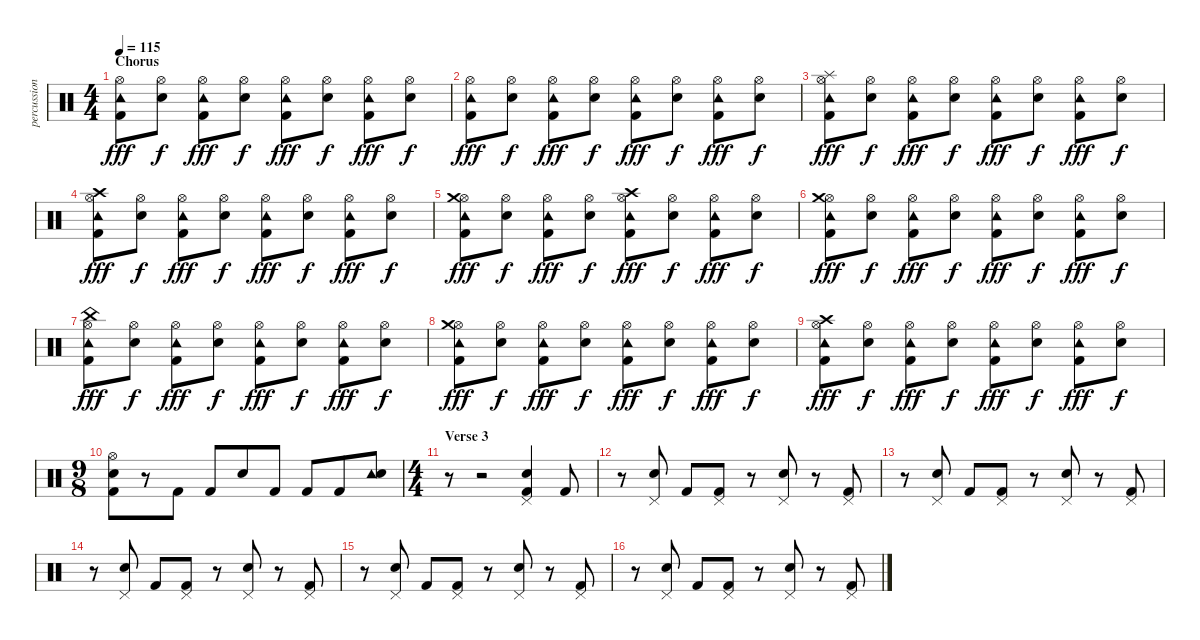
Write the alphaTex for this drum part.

\track ("percussion - vom" "percussion") {instrument percussion}
\staff {score}
\articulation defaults
\ts (4 4)
\section ("" "Chorus")
\tempo 115
\clef neutral
\ks c
("Hi-Hat (open)" "Tambourine (hit)" "Kick (hit) 2").8{dy fff} ("Hi-Hat (open)" "Snare (hit) 2").8{dy f} ("Hi-Hat (open)" "Tambourine (hit)" "Kick (hit) 2").8{dy fff} ("Hi-Hat (open)" "Snare (hit) 2").8{dy f} ("Hi-Hat (open)" "Tambourine (hit)" "Kick (hit) 2").8{dy fff} ("Hi-Hat (open)" "Snare (hit) 2").8{dy f} ("Hi-Hat (open)" "Tambourine (hit)" "Kick (hit) 2").8{dy fff} ("Hi-Hat (open)" "Snare (hit) 2").8{dy f} |
("Hi-Hat (open)" "Tambourine (hit)" "Kick (hit) 2").8{dy fff} ("Hi-Hat (open)" "Snare (hit) 2").8{dy f} ("Hi-Hat (open)" "Tambourine (hit)" "Kick (hit) 2").8{dy fff} ("Hi-Hat (open)" "Snare (hit) 2").8{dy f} ("Hi-Hat (open)" "Tambourine (hit)" "Kick (hit) 2").8{dy fff} ("Hi-Hat (open)" "Snare (hit) 2").8{dy f} ("Hi-Hat (open)" "Tambourine (hit)" "Kick (hit) 2").8{dy fff} ("Hi-Hat (open)" "Snare (hit) 2").8{dy f} |
("Hi-Hat (open)" "Splash (hit)" "Tambourine (hit)" "Kick (hit) 2").8{dy fff} ("Hi-Hat (open)" "Snare (hit) 2").8{dy f} ("Hi-Hat (open)" "Tambourine (hit)" "Kick (hit) 2").8{dy fff} ("Hi-Hat (open)" "Snare (hit) 2").8{dy f} ("Hi-Hat (open)" "Tambourine (hit)" "Kick (hit) 2").8{dy fff} ("Hi-Hat (open)" "Snare (hit) 2").8{dy f} ("Hi-Hat (open)" "Tambourine (hit)" "Kick (hit) 2").8{dy fff} ("Hi-Hat (open)" "Snare (hit) 2").8{dy f} |
("Hi-Hat (open)" "Crash high (hit)" "Tambourine (hit)" "Kick (hit) 2").8{dy fff} ("Hi-Hat (open)" "Snare (hit) 2").8{dy f} ("Hi-Hat (open)" "Tambourine (hit)" "Kick (hit) 2").8{dy fff} ("Hi-Hat (open)" "Snare (hit) 2").8{dy f} ("Hi-Hat (open)" "Tambourine (hit)" "Kick (hit) 2").8{dy fff} ("Hi-Hat (open)" "Snare (hit) 2").8{dy f} ("Hi-Hat (open)" "Tambourine (hit)" "Kick (hit) 2").8{dy fff} ("Hi-Hat (open)" "Snare (hit) 2").8{dy f} |
("Hi-Hat (open)" "Crash medium (hit)" "Tambourine (hit)" "Kick (hit) 2").8{dy fff} ("Hi-Hat (open)" "Snare (hit) 2").8{dy f} ("Hi-Hat (open)" "Tambourine (hit)" "Kick (hit) 2").8{dy fff} ("Hi-Hat (open)" "Snare (hit) 2").8{dy f} ("Hi-Hat (open)" "Crash high (hit)" "Tambourine (hit)" "Kick (hit) 2").8{dy fff} ("Hi-Hat (open)" "Snare (hit) 2").8{dy f} ("Hi-Hat (open)" "Tambourine (hit)" "Kick (hit) 2").8{dy fff} ("Hi-Hat (open)" "Snare (hit) 2").8{dy f} |
("Hi-Hat (open)" "Crash medium (hit)" "Tambourine (hit)" "Kick (hit) 2").8{dy fff} ("Hi-Hat (open)" "Snare (hit) 2").8{dy f} ("Hi-Hat (open)" "Tambourine (hit)" "Kick (hit) 2").8{dy fff} ("Hi-Hat (open)" "Snare (hit) 2").8{dy f} ("Hi-Hat (open)" "Tambourine (hit)" "Kick (hit) 2").8{dy fff} ("Hi-Hat (open)" "Snare (hit) 2").8{dy f} ("Hi-Hat (open)" "Tambourine (hit)" "Kick (hit) 2").8{dy fff} ("Hi-Hat (open)" "Snare (hit) 2").8{dy f} |
("Hi-Hat (open)" "China (hit)" "Tambourine (hit)" "Kick (hit) 2").8{dy fff} ("Hi-Hat (open)" "Snare (hit) 2").8{dy f} ("Hi-Hat (open)" "Tambourine (hit)" "Kick (hit) 2").8{dy fff} ("Hi-Hat (open)" "Snare (hit) 2").8{dy f} ("Hi-Hat (open)" "Tambourine (hit)" "Kick (hit) 2").8{dy fff} ("Hi-Hat (open)" "Snare (hit) 2").8{dy f} ("Hi-Hat (open)" "Tambourine (hit)" "Kick (hit) 2").8{dy fff} ("Hi-Hat (open)" "Snare (hit) 2").8{dy f} |
("Hi-Hat (open)" "Crash medium (hit)" "Tambourine (hit)" "Kick (hit) 2").8{dy fff} ("Hi-Hat (open)" "Snare (hit) 2").8{dy f} ("Hi-Hat (open)" "Tambourine (hit)" "Kick (hit) 2").8{dy fff} ("Hi-Hat (open)" "Snare (hit) 2").8{dy f} ("Hi-Hat (open)" "Tambourine (hit)" "Kick (hit) 2").8{dy fff} ("Hi-Hat (open)" "Snare (hit) 2").8{dy f} ("Hi-Hat (open)" "Tambourine (hit)" "Kick (hit) 2").8{dy fff} ("Hi-Hat (open)" "Snare (hit) 2").8{dy f} |
("Hi-Hat (open)" "Crash high (hit)" "Tambourine (hit)" "Kick (hit) 2").8{dy fff} ("Hi-Hat (open)" "Snare (hit) 2").8{dy f} ("Hi-Hat (open)" "Tambourine (hit)" "Kick (hit) 2").8{dy fff} ("Hi-Hat (open)" "Snare (hit) 2").8{dy f} ("Hi-Hat (open)" "Tambourine (hit)" "Kick (hit) 2").8{dy fff} ("Hi-Hat (open)" "Snare (hit) 2").8{dy f} ("Hi-Hat (open)" "Tambourine (hit)" "Kick (hit) 2").8{dy fff} ("Hi-Hat (open)" "Snare (hit) 2").8{dy f} |
\ts (9 8)
("Hi-Hat (open)" "Snare (hit) 2" "Kick (hit) 2").8 r.8 "Kick (hit) 2".8 "Kick (hit) 2".8 "Snare (hit) 2".8 "Kick (hit) 2".8 "Kick (hit) 2".8 "Kick (hit) 2".8 ("Tambourine (hit)" "Snare (hit) 2").8 |
\ts (4 4)
\section ("" "Verse 3")
r.8 r.2 ("Pedal Hi-Hat (hit)" "Snare (hit) 2" "Kick (hit) 2").4 "Kick (hit) 2".8 |
r.8 ("Pedal Hi-Hat (hit)" "Snare (hit) 2").8 "Kick (hit) 2".8 ("Pedal Hi-Hat (hit)" "Kick (hit) 2").8 r.8 ("Pedal Hi-Hat (hit)" "Snare (hit) 2").8 r.8 ("Pedal Hi-Hat (hit)" "Kick (hit) 2").8 |
r.8 ("Pedal Hi-Hat (hit)" "Snare (hit) 2").8 "Kick (hit) 2".8 ("Pedal Hi-Hat (hit)" "Kick (hit) 2").8 r.8 ("Pedal Hi-Hat (hit)" "Snare (hit) 2").8 r.8 ("Pedal Hi-Hat (hit)" "Kick (hit) 2").8 |
r.8 ("Pedal Hi-Hat (hit)" "Snare (hit) 2").8 "Kick (hit) 2".8 ("Pedal Hi-Hat (hit)" "Kick (hit) 2").8 r.8 ("Pedal Hi-Hat (hit)" "Snare (hit) 2").8 r.8 ("Pedal Hi-Hat (hit)" "Kick (hit) 2").8 |
r.8 ("Pedal Hi-Hat (hit)" "Snare (hit) 2").8 "Kick (hit) 2".8 ("Pedal Hi-Hat (hit)" "Kick (hit) 2").8 r.8 ("Pedal Hi-Hat (hit)" "Snare (hit) 2").8 r.8 ("Pedal Hi-Hat (hit)" "Kick (hit) 2").8 |
r.8 ("Pedal Hi-Hat (hit)" "Snare (hit) 2").8 "Kick (hit) 2".8 ("Pedal Hi-Hat (hit)" "Kick (hit) 2").8 r.8 ("Pedal Hi-Hat (hit)" "Snare (hit) 2").8 r.8 ("Pedal Hi-Hat (hit)" "Kick (hit) 2").8
